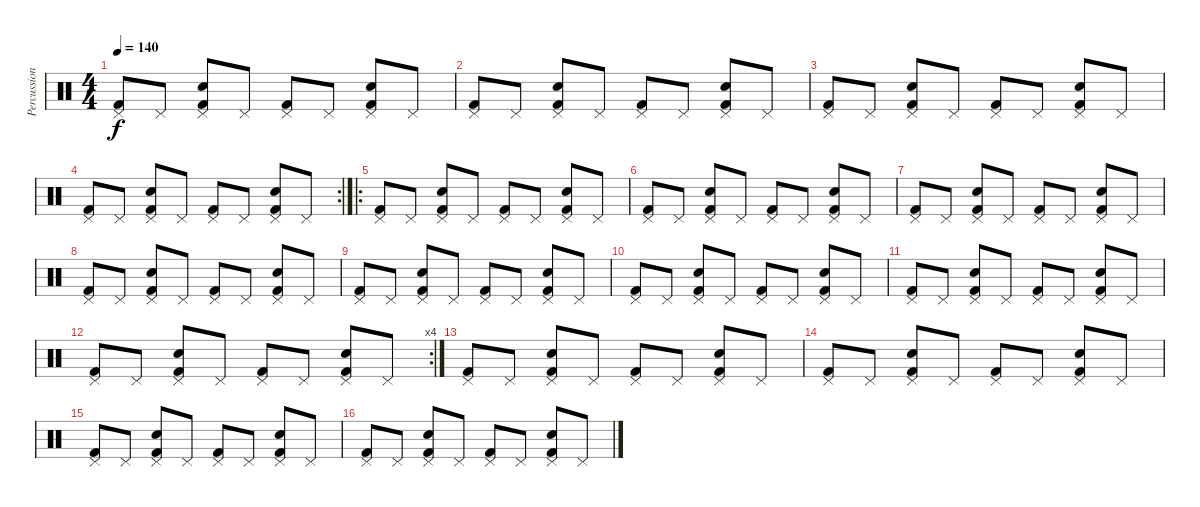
\track ("Percussion" "Percussion") {instrument percussion}
\staff {score}
\articulation defaults
\ts (4 4)
\tempo 140
\clef neutral
\ks c
("Kick (hit) 2" "Pedal Hi-Hat (hit)").8{dy f} "Pedal Hi-Hat (hit)".8 ("Electric Snare (hit)" "Kick (hit) 2" "Pedal Hi-Hat (hit)").8 "Pedal Hi-Hat (hit)".8 ("Kick (hit) 2" "Pedal Hi-Hat (hit)").8 "Pedal Hi-Hat (hit)".8 ("Electric Snare (hit)" "Kick (hit) 2" "Pedal Hi-Hat (hit)").8 "Pedal Hi-Hat (hit)".8 |
("Kick (hit) 2" "Pedal Hi-Hat (hit)").8 "Pedal Hi-Hat (hit)".8 ("Electric Snare (hit)" "Kick (hit) 2" "Pedal Hi-Hat (hit)").8 "Pedal Hi-Hat (hit)".8 ("Kick (hit) 2" "Pedal Hi-Hat (hit)").8 "Pedal Hi-Hat (hit)".8 ("Electric Snare (hit)" "Kick (hit) 2" "Pedal Hi-Hat (hit)").8 "Pedal Hi-Hat (hit)".8 |
("Kick (hit) 2" "Pedal Hi-Hat (hit)").8 "Pedal Hi-Hat (hit)".8 ("Electric Snare (hit)" "Kick (hit) 2" "Pedal Hi-Hat (hit)").8 "Pedal Hi-Hat (hit)".8 ("Kick (hit) 2" "Pedal Hi-Hat (hit)").8 "Pedal Hi-Hat (hit)".8 ("Electric Snare (hit)" "Kick (hit) 2" "Pedal Hi-Hat (hit)").8 "Pedal Hi-Hat (hit)".8 |
\rc 2
("Kick (hit) 2" "Pedal Hi-Hat (hit)").8 "Pedal Hi-Hat (hit)".8 ("Electric Snare (hit)" "Kick (hit) 2" "Pedal Hi-Hat (hit)").8 "Pedal Hi-Hat (hit)".8 ("Kick (hit) 2" "Pedal Hi-Hat (hit)").8 "Pedal Hi-Hat (hit)".8 ("Electric Snare (hit)" "Kick (hit) 2" "Pedal Hi-Hat (hit)").8 "Pedal Hi-Hat (hit)".8 |
\ro
("Kick (hit) 2" "Pedal Hi-Hat (hit)").8 "Pedal Hi-Hat (hit)".8 ("Electric Snare (hit)" "Kick (hit) 2" "Pedal Hi-Hat (hit)").8 "Pedal Hi-Hat (hit)".8 ("Kick (hit) 2" "Pedal Hi-Hat (hit)").8 "Pedal Hi-Hat (hit)".8 ("Electric Snare (hit)" "Kick (hit) 2" "Pedal Hi-Hat (hit)").8 "Pedal Hi-Hat (hit)".8 |
("Kick (hit) 2" "Pedal Hi-Hat (hit)").8 "Pedal Hi-Hat (hit)".8 ("Electric Snare (hit)" "Kick (hit) 2" "Pedal Hi-Hat (hit)").8 "Pedal Hi-Hat (hit)".8 ("Kick (hit) 2" "Pedal Hi-Hat (hit)").8 "Pedal Hi-Hat (hit)".8 ("Electric Snare (hit)" "Kick (hit) 2" "Pedal Hi-Hat (hit)").8 "Pedal Hi-Hat (hit)".8 |
("Kick (hit) 2" "Pedal Hi-Hat (hit)").8 "Pedal Hi-Hat (hit)".8 ("Electric Snare (hit)" "Kick (hit) 2" "Pedal Hi-Hat (hit)").8 "Pedal Hi-Hat (hit)".8 ("Kick (hit) 2" "Pedal Hi-Hat (hit)").8 "Pedal Hi-Hat (hit)".8 ("Electric Snare (hit)" "Kick (hit) 2" "Pedal Hi-Hat (hit)").8 "Pedal Hi-Hat (hit)".8 |
("Kick (hit) 2" "Pedal Hi-Hat (hit)").8 "Pedal Hi-Hat (hit)".8 ("Electric Snare (hit)" "Kick (hit) 2" "Pedal Hi-Hat (hit)").8 "Pedal Hi-Hat (hit)".8 ("Kick (hit) 2" "Pedal Hi-Hat (hit)").8 "Pedal Hi-Hat (hit)".8 ("Electric Snare (hit)" "Kick (hit) 2" "Pedal Hi-Hat (hit)").8 "Pedal Hi-Hat (hit)".8 |
("Kick (hit) 2" "Pedal Hi-Hat (hit)").8 "Pedal Hi-Hat (hit)".8 ("Electric Snare (hit)" "Kick (hit) 2" "Pedal Hi-Hat (hit)").8 "Pedal Hi-Hat (hit)".8 ("Kick (hit) 2" "Pedal Hi-Hat (hit)").8 "Pedal Hi-Hat (hit)".8 ("Electric Snare (hit)" "Kick (hit) 2" "Pedal Hi-Hat (hit)").8 "Pedal Hi-Hat (hit)".8 |
("Kick (hit) 2" "Pedal Hi-Hat (hit)").8 "Pedal Hi-Hat (hit)".8 ("Electric Snare (hit)" "Kick (hit) 2" "Pedal Hi-Hat (hit)").8 "Pedal Hi-Hat (hit)".8 ("Kick (hit) 2" "Pedal Hi-Hat (hit)").8 "Pedal Hi-Hat (hit)".8 ("Electric Snare (hit)" "Kick (hit) 2" "Pedal Hi-Hat (hit)").8 "Pedal Hi-Hat (hit)".8 |
("Kick (hit) 2" "Pedal Hi-Hat (hit)").8 "Pedal Hi-Hat (hit)".8 ("Electric Snare (hit)" "Kick (hit) 2" "Pedal Hi-Hat (hit)").8 "Pedal Hi-Hat (hit)".8 ("Kick (hit) 2" "Pedal Hi-Hat (hit)").8 "Pedal Hi-Hat (hit)".8 ("Electric Snare (hit)" "Kick (hit) 2" "Pedal Hi-Hat (hit)").8 "Pedal Hi-Hat (hit)".8 |
\rc 4
("Kick (hit) 2" "Pedal Hi-Hat (hit)").8 "Pedal Hi-Hat (hit)".8 ("Electric Snare (hit)" "Kick (hit) 2" "Pedal Hi-Hat (hit)").8 "Pedal Hi-Hat (hit)".8 ("Kick (hit) 2" "Pedal Hi-Hat (hit)").8 "Pedal Hi-Hat (hit)".8 ("Electric Snare (hit)" "Kick (hit) 2" "Pedal Hi-Hat (hit)").8 "Pedal Hi-Hat (hit)".8 |
("Kick (hit) 2" "Pedal Hi-Hat (hit)").8 "Pedal Hi-Hat (hit)".8 ("Electric Snare (hit)" "Kick (hit) 2" "Pedal Hi-Hat (hit)").8 "Pedal Hi-Hat (hit)".8 ("Kick (hit) 2" "Pedal Hi-Hat (hit)").8 "Pedal Hi-Hat (hit)".8 ("Electric Snare (hit)" "Kick (hit) 2" "Pedal Hi-Hat (hit)").8 "Pedal Hi-Hat (hit)".8 |
("Kick (hit) 2" "Pedal Hi-Hat (hit)").8 "Pedal Hi-Hat (hit)".8 ("Electric Snare (hit)" "Kick (hit) 2" "Pedal Hi-Hat (hit)").8 "Pedal Hi-Hat (hit)".8 ("Kick (hit) 2" "Pedal Hi-Hat (hit)").8 "Pedal Hi-Hat (hit)".8 ("Electric Snare (hit)" "Kick (hit) 2" "Pedal Hi-Hat (hit)").8 "Pedal Hi-Hat (hit)".8 |
("Kick (hit) 2" "Pedal Hi-Hat (hit)").8 "Pedal Hi-Hat (hit)".8 ("Electric Snare (hit)" "Kick (hit) 2" "Pedal Hi-Hat (hit)").8 "Pedal Hi-Hat (hit)".8 ("Kick (hit) 2" "Pedal Hi-Hat (hit)").8 "Pedal Hi-Hat (hit)".8 ("Electric Snare (hit)" "Kick (hit) 2" "Pedal Hi-Hat (hit)").8 "Pedal Hi-Hat (hit)".8 |
("Kick (hit) 2" "Pedal Hi-Hat (hit)").8 "Pedal Hi-Hat (hit)".8 ("Electric Snare (hit)" "Kick (hit) 2" "Pedal Hi-Hat (hit)").8 "Pedal Hi-Hat (hit)".8 ("Kick (hit) 2" "Pedal Hi-Hat (hit)").8 "Pedal Hi-Hat (hit)".8 ("Electric Snare (hit)" "Kick (hit) 2" "Pedal Hi-Hat (hit)").8 "Pedal Hi-Hat (hit)".8
